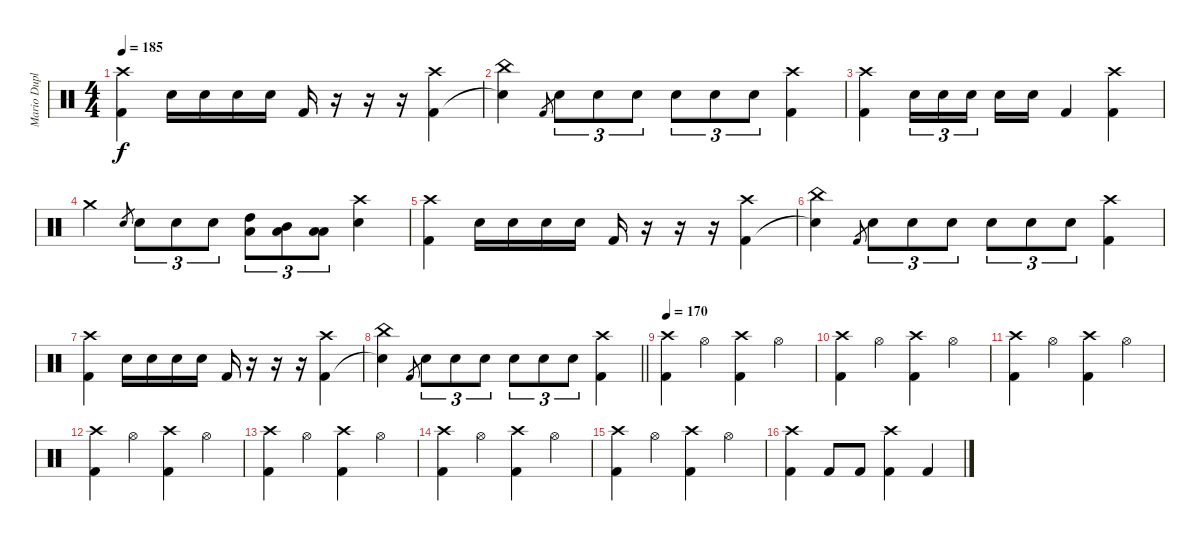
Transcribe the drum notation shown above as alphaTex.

\track ("Mario Duplantier" "Mario Dupl") {instrument percussion}
\staff {score}
\articulation defaults
\ts (4 4)
\tempo 185
\clef neutral
\ks c
("Crash high (hit)" "Kick (hit) 2").4{dy f} "Electric Snare (hit)".16 "Electric Snare (hit)".16 "Electric Snare (hit)".16 "Electric Snare (hit)".16 "Kick (hit) 2".16 r.16 r.16 r.16 ("Crash high (hit)" "Kick (hit) 2").4 |
("China (hit)" "Snare (hit)"{t}).4 "Kick (hit) 2".8{gr} "Electric Snare (hit)".8{tu (3 2)} "Electric Snare (hit)".8{tu (3 2)} "Electric Snare (hit)".8{tu (3 2)} "Electric Snare (hit)".8{tu (3 2)} "Electric Snare (hit)".8{tu (3 2)} "Electric Snare (hit)".8{tu (3 2)} ("Crash high (hit)" "Kick (hit) 2").4 |
("Crash high (hit)" "Kick (hit) 2").4 "Electric Snare (hit)".16{tu (3 2)} "Electric Snare (hit)".16{tu (3 2)} "Electric Snare (hit)".16{tu (3 2) beam splitsecondary} "Electric Snare (hit)".16 "Electric Snare (hit)".16 "Kick (hit) 2".4 ("Crash high (hit)" "Kick (hit) 2").4 |
"Crash medium (hit)".4 "Electric Snare (hit)".8{gr} "Electric Snare (hit)".8{tu (3 2)} "Electric Snare (hit)".8{tu (3 2)} "Electric Snare (hit)".8{tu (3 2)} ("High Tom (hit)" "Low Floor Tom (hit)").8{tu (3 2)} ("Mid Tom (hit)" "Low Floor Tom (hit)").8{tu (3 2)} ("Low Tom (hit)" "Low Floor Tom (hit)").8{tu (3 2)} ("Crash high (hit)" "Electric Snare (hit)").4 |
("Crash high (hit)" "Kick (hit) 2").4 "Electric Snare (hit)".16 "Electric Snare (hit)".16 "Electric Snare (hit)".16 "Electric Snare (hit)".16 "Kick (hit) 2".16 r.16 r.16 r.16 ("Crash high (hit)" "Kick (hit) 2").4 |
("China (hit)" "Snare (hit)"{t}).4 "Kick (hit) 2".8{gr} "Electric Snare (hit)".8{tu (3 2)} "Electric Snare (hit)".8{tu (3 2)} "Electric Snare (hit)".8{tu (3 2)} "Electric Snare (hit)".8{tu (3 2)} "Electric Snare (hit)".8{tu (3 2)} "Electric Snare (hit)".8{tu (3 2)} ("Crash high (hit)" "Kick (hit) 2").4 |
("Crash high (hit)" "Kick (hit) 2").4 "Electric Snare (hit)".16 "Electric Snare (hit)".16 "Electric Snare (hit)".16 "Electric Snare (hit)".16 "Kick (hit) 2".16 r.16 r.16 r.16 ("Crash high (hit)" "Kick (hit) 2").4 |
\barLineRight lightlight
("China (hit)" "Snare (hit)"{t}).4 "Kick (hit) 2".8{gr} "Electric Snare (hit)".8{tu (3 2)} "Electric Snare (hit)".8{tu (3 2)} "Electric Snare (hit)".8{tu (3 2)} "Electric Snare (hit)".8{tu (3 2)} "Electric Snare (hit)".8{tu (3 2)} "Electric Snare (hit)".8{tu (3 2)} ("Crash high (hit)" "Kick (hit) 2").4 |
\tempo 170
("Crash high (hit)" "Kick (hit) 2").4 "Hi-Hat (open)".4 ("Crash high (hit)" "Kick (hit) 2").4 "Hi-Hat (open)".4 |
("Crash high (hit)" "Kick (hit) 2").4 "Hi-Hat (open)".4 ("Crash high (hit)" "Kick (hit) 2").4 "Hi-Hat (open)".4 |
("Crash high (hit)" "Kick (hit) 2").4 "Hi-Hat (open)".4 ("Crash high (hit)" "Kick (hit) 2").4 "Hi-Hat (open)".4 |
("Crash high (hit)" "Kick (hit) 2").4 "Hi-Hat (open)".4 ("Crash high (hit)" "Kick (hit) 2").4 "Hi-Hat (open)".4 |
("Crash high (hit)" "Kick (hit) 2").4 "Hi-Hat (open)".4 ("Crash high (hit)" "Kick (hit) 2").4 "Hi-Hat (open)".4 |
("Crash high (hit)" "Kick (hit) 2").4 "Hi-Hat (open)".4 ("Crash high (hit)" "Kick (hit) 2").4 "Hi-Hat (open)".4 |
("Crash high (hit)" "Kick (hit) 2").4 "Hi-Hat (open)".4 ("Crash high (hit)" "Kick (hit) 2").4 "Hi-Hat (open)".4 |
("Crash high (hit)" "Kick (hit) 2").4 "Kick (hit) 2".8 "Kick (hit) 2".8 ("Crash high (hit)" "Kick (hit) 2").4 "Kick (hit) 2".4
